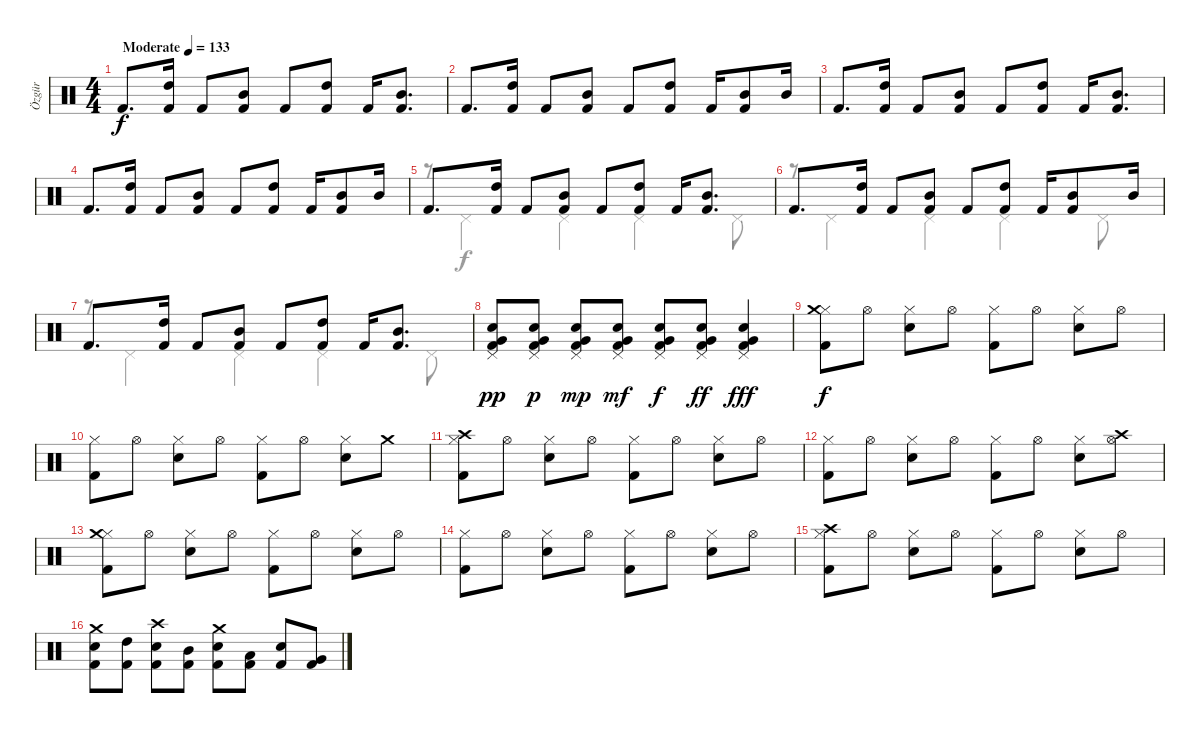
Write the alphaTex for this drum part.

\track ("Özgür" "Özgür") {instrument percussion}
\staff {score}
\articulation defaults
\voice
\ts (4 4)
\tempo (133 "Moderate")
\clef neutral
\ks c "Kick (hit) 2".8{d dy f}
("Kick (hit) 2" "High Tom (hit)").16 "Kick (hit) 2".8 ("Kick (hit) 2" "Mid Tom (hit)").8 "Kick (hit) 2".8 ("Kick (hit) 2" "High Tom (hit)").8 "Kick (hit) 2".16 ("Kick (hit) 2" "Mid Tom (hit)").8{d} |
"Kick (hit) 2".8{d} ("Kick (hit) 2" "High Tom (hit)").16 "Kick (hit) 2".8 ("Kick (hit) 2" "Mid Tom (hit)").8 "Kick (hit) 2".8 ("Kick (hit) 2" "High Tom (hit)").8 "Kick (hit) 2".16 ("Kick (hit) 2" "Mid Tom (hit)").8 "Mid Tom (hit)".16 |
"Kick (hit) 2".8{d} ("Kick (hit) 2" "High Tom (hit)").16 "Kick (hit) 2".8 ("Kick (hit) 2" "Mid Tom (hit)").8 "Kick (hit) 2".8 ("Kick (hit) 2" "High Tom (hit)").8 "Kick (hit) 2".16 ("Kick (hit) 2" "Mid Tom (hit)").8{d} |
"Kick (hit) 2".8{d} ("Kick (hit) 2" "High Tom (hit)").16 "Kick (hit) 2".8 ("Kick (hit) 2" "Mid Tom (hit)").8 "Kick (hit) 2".8 ("Kick (hit) 2" "High Tom (hit)").8 "Kick (hit) 2".16 ("Kick (hit) 2" "Mid Tom (hit)").8 "Mid Tom (hit)".16 |
"Kick (hit) 2".8{d} ("Kick (hit) 2" "High Tom (hit)").16 "Kick (hit) 2".8 ("Kick (hit) 2" "Mid Tom (hit)").8 "Kick (hit) 2".8 ("Kick (hit) 2" "High Tom (hit)").8 "Kick (hit) 2".16 ("Kick (hit) 2" "Mid Tom (hit)").8{d} |
"Kick (hit) 2".8{d} ("Kick (hit) 2" "High Tom (hit)").16 "Kick (hit) 2".8 ("Kick (hit) 2" "Mid Tom (hit)").8 "Kick (hit) 2".8 ("Kick (hit) 2" "High Tom (hit)").8 "Kick (hit) 2".16 ("Kick (hit) 2" "Mid Tom (hit)").8 "Mid Tom (hit)".16 |
"Kick (hit) 2".8{d} ("Kick (hit) 2" "High Tom (hit)").16 "Kick (hit) 2".8 ("Kick (hit) 2" "Mid Tom (hit)").8 "Kick (hit) 2".8 ("Kick (hit) 2" "High Tom (hit)").8 "Kick (hit) 2".16 ("Kick (hit) 2" "Mid Tom (hit)").8{d} |
("Kick (hit) 2" "Pedal Hi-Hat (hit)" "Very Low Tom (hit)" "Snare (hit) 2").8{dy pp} ("Kick (hit) 2" "Pedal Hi-Hat (hit)" "Very Low Tom (hit)" "Snare (hit) 2").8{dy p} ("Kick (hit) 2" "Pedal Hi-Hat (hit)" "Very Low Tom (hit)" "Snare (hit) 2").8{dy mp} ("Kick (hit) 2" "Pedal Hi-Hat (hit)" "Very Low Tom (hit)" "Snare (hit) 2").8{dy mf} ("Kick (hit) 2" "Pedal Hi-Hat (hit)" "Very Low Tom (hit)" "Snare (hit) 2").8{dy f} ("Kick (hit) 2" "Pedal Hi-Hat (hit)" "Very Low Tom (hit)" "Snare (hit) 2").8{dy ff} ("Kick (hit) 2" "Pedal Hi-Hat (hit)" "Very Low Tom (hit)" "Snare (hit) 2").4{dy fff} |
("Kick (hit) 2" "Hi-Hat (closed)" "Crash medium (hit)").8{dy f} "Hi-Hat (open)".8 ("Snare (hit) 2" "Hi-Hat (closed)").8 "Hi-Hat (open)".8 ("Kick (hit) 2" "Hi-Hat (closed)").8 "Hi-Hat (open)".8 ("Snare (hit) 2" "Hi-Hat (closed)").8 "Hi-Hat (open)".8 |
("Kick (hit) 2" "Hi-Hat (closed)").8 "Hi-Hat (open)".8 ("Snare (hit) 2" "Hi-Hat (closed)").8 "Hi-Hat (open)".8 ("Kick (hit) 2" "Hi-Hat (closed)").8 "Hi-Hat (open)".8 ("Snare (hit) 2" "Hi-Hat (closed)").8 "Crash medium (hit)".8 |
("Kick (hit) 2" "Hi-Hat (closed)" "Crash high (hit)").8 "Hi-Hat (open)".8 ("Snare (hit) 2" "Hi-Hat (closed)").8 "Hi-Hat (open)".8 ("Kick (hit) 2" "Hi-Hat (closed)").8 "Hi-Hat (open)".8 ("Snare (hit) 2" "Hi-Hat (closed)").8 "Hi-Hat (open)".8 |
("Kick (hit) 2" "Hi-Hat (closed)").8 "Hi-Hat (open)".8 ("Snare (hit) 2" "Hi-Hat (closed)").8 "Hi-Hat (open)".8 ("Kick (hit) 2" "Hi-Hat (closed)").8 "Hi-Hat (open)".8 ("Snare (hit) 2" "Hi-Hat (closed)").8 ("Hi-Hat (open)" "Crash high (hit)").8 |
("Kick (hit) 2" "Hi-Hat (closed)" "Crash medium (hit)").8 "Hi-Hat (open)".8 ("Snare (hit) 2" "Hi-Hat (closed)").8 "Hi-Hat (open)".8 ("Kick (hit) 2" "Hi-Hat (closed)").8 "Hi-Hat (open)".8 ("Snare (hit) 2" "Hi-Hat (closed)").8 "Hi-Hat (open)".8 |
("Kick (hit) 2" "Hi-Hat (closed)").8 "Hi-Hat (open)".8 ("Snare (hit) 2" "Hi-Hat (closed)").8 "Hi-Hat (open)".8 ("Kick (hit) 2" "Hi-Hat (closed)").8 "Hi-Hat (open)".8 ("Snare (hit) 2" "Hi-Hat (closed)").8 "Hi-Hat (open)".8 |
("Kick (hit) 2" "Hi-Hat (closed)" "Crash high (hit)").8 "Hi-Hat (open)".8 ("Snare (hit) 2" "Hi-Hat (closed)").8 "Hi-Hat (open)".8 ("Kick (hit) 2" "Hi-Hat (closed)").8 "Hi-Hat (open)".8 ("Snare (hit) 2" "Hi-Hat (closed)").8 "Hi-Hat (open)".8 |
("Kick (hit) 2" "Snare (hit) 2" "Crash medium (hit)").8 ("Kick (hit) 2" "High Tom (hit)").8 ("Kick (hit) 2" "Snare (hit) 2" "Crash high (hit)").8 ("Kick (hit) 2" "Mid Tom (hit)").8 ("Kick (hit) 2" "Snare (hit) 2" "Crash medium (hit)").8 ("Kick (hit) 2" "Low Tom (hit)").8 ("Kick (hit) 2" "Snare (hit) 2").8 ("Kick (hit) 2" "Very Low Tom (hit)").8
\voice
\clef neutral
\ottava regular
\simile none
\ks c
|
|
|
|
r.8 "Pedal Hi-Hat (hit)".4 "Pedal Hi-Hat (hit)".4 "Pedal Hi-Hat (hit)".4 "Pedal Hi-Hat (hit)".8 |
r.8 "Pedal Hi-Hat (hit)".4 "Pedal Hi-Hat (hit)".4 "Pedal Hi-Hat (hit)".4 "Pedal Hi-Hat (hit)".8 |
r.8 "Pedal Hi-Hat (hit)".4 "Pedal Hi-Hat (hit)".4 "Pedal Hi-Hat (hit)".4 "Pedal Hi-Hat (hit)".8 |
|
|
|
|
|
|
|
|
